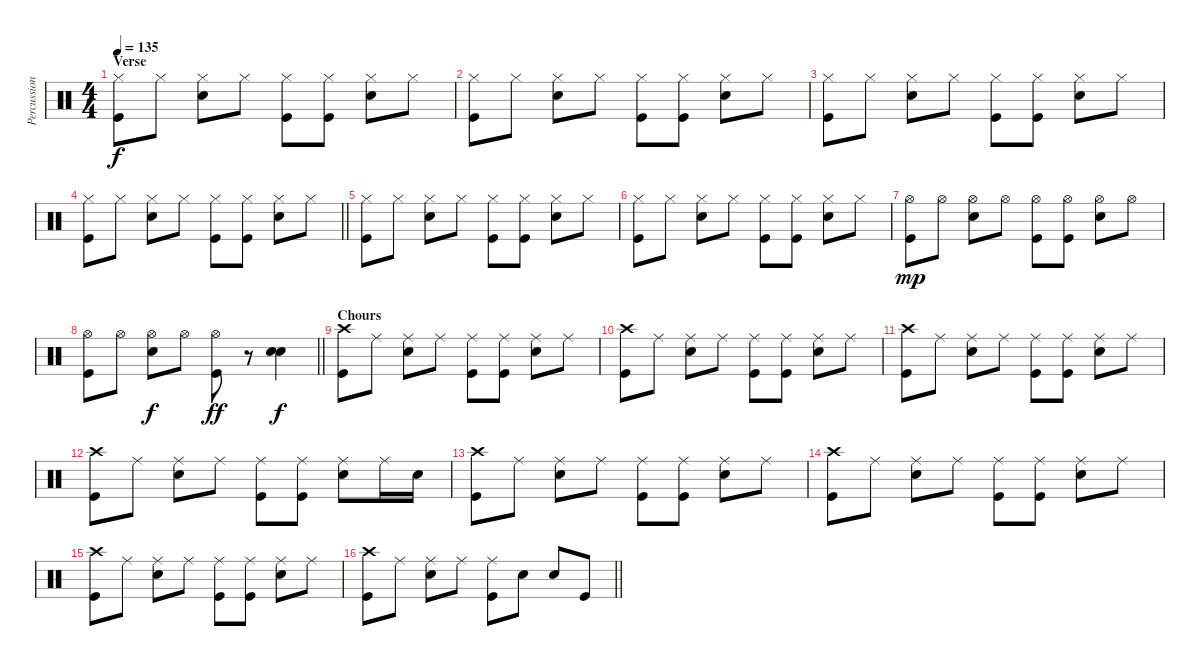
\track ("Percussion" "Percussion") {instrument percussion}
\staff {score}
\articulation defaults
\ts (4 4)
\section ("" "Verse ")
\tempo 135
\clef neutral
\ks c
("Hi-Hat (closed)" "Kick (hit)").8{dy f} "Hi-Hat (closed)".8 ("Hi-Hat (closed)" "Snare (hit) 2").8 "Hi-Hat (closed)".8 ("Hi-Hat (closed)" "Kick (hit)").8 ("Hi-Hat (closed)" "Kick (hit)").8 ("Hi-Hat (closed)" "Snare (hit) 2").8 "Hi-Hat (closed)".8 |
("Hi-Hat (closed)" "Kick (hit)").8 "Hi-Hat (closed)".8 ("Hi-Hat (closed)" "Snare (hit) 2").8 "Hi-Hat (closed)".8 ("Hi-Hat (closed)" "Kick (hit)").8 ("Hi-Hat (closed)" "Kick (hit)").8 ("Hi-Hat (closed)" "Snare (hit) 2").8 "Hi-Hat (closed)".8 |
("Hi-Hat (closed)" "Kick (hit)").8 "Hi-Hat (closed)".8 ("Hi-Hat (closed)" "Snare (hit) 2").8 "Hi-Hat (closed)".8 ("Hi-Hat (closed)" "Kick (hit)").8 ("Hi-Hat (closed)" "Kick (hit)").8 ("Hi-Hat (closed)" "Snare (hit) 2").8 "Hi-Hat (closed)".8 |
\barLineRight lightlight
("Hi-Hat (closed)" "Kick (hit)").8 "Hi-Hat (closed)".8 ("Hi-Hat (closed)" "Snare (hit) 2").8 "Hi-Hat (closed)".8 ("Hi-Hat (closed)" "Kick (hit)").8 ("Hi-Hat (closed)" "Kick (hit)").8 ("Hi-Hat (closed)" "Snare (hit) 2").8 "Hi-Hat (closed)".8 |
("Hi-Hat (closed)" "Kick (hit)").8 "Hi-Hat (closed)".8 ("Hi-Hat (closed)" "Snare (hit) 2").8 "Hi-Hat (closed)".8 ("Hi-Hat (closed)" "Kick (hit)").8 ("Hi-Hat (closed)" "Kick (hit)").8 ("Hi-Hat (closed)" "Snare (hit) 2").8 "Hi-Hat (closed)".8 |
("Hi-Hat (closed)" "Kick (hit)").8 "Hi-Hat (closed)".8 ("Hi-Hat (closed)" "Snare (hit) 2").8 "Hi-Hat (closed)".8 ("Hi-Hat (closed)" "Kick (hit)").8 ("Hi-Hat (closed)" "Kick (hit)").8 ("Hi-Hat (closed)" "Snare (hit) 2").8 "Hi-Hat (closed)".8 |
("Hi-Hat (open)" "Kick (hit)").8{dy mp} "Hi-Hat (open)".8 ("Hi-Hat (open)" "Snare (hit) 2").8 "Hi-Hat (open)".8 ("Hi-Hat (open)" "Kick (hit)").8 ("Hi-Hat (open)" "Kick (hit)").8 ("Hi-Hat (open)" "Snare (hit) 2").8 "Hi-Hat (open)".8 |
\barLineRight lightlight
("Hi-Hat (open)" "Kick (hit)").8 "Hi-Hat (open)".8 ("Hi-Hat (open)" "Snare (hit) 2").8{dy f} "Hi-Hat (open)".8 ("Hi-Hat (open)" "Kick (hit)").8{dy ff} r.8 ("Snare (hit) 2" "Snare (hit) 2").4{dy f} |
\section ("" "Chours ")
("Kick (hit)" "Crash high (hit)").8 "Ride (middle)".8 ("Ride (middle)" "Snare (hit) 2").8 "Ride (middle)".8 ("Ride (middle)" "Kick (hit)").8 ("Ride (middle)" "Kick (hit)").8 ("Ride (middle)" "Snare (hit) 2").8 "Ride (middle)".8 |
("Kick (hit)" "Crash high (hit)").8 "Ride (middle)".8 ("Ride (middle)" "Snare (hit) 2").8 "Ride (middle)".8 ("Ride (middle)" "Kick (hit)").8 ("Ride (middle)" "Kick (hit)").8 ("Ride (middle)" "Snare (hit) 2").8 "Ride (middle)".8 |
("Kick (hit)" "Crash high (hit)").8 "Ride (middle)".8 ("Ride (middle)" "Snare (hit) 2").8 "Ride (middle)".8 ("Ride (middle)" "Kick (hit)").8 ("Ride (middle)" "Kick (hit)").8 ("Ride (middle)" "Snare (hit) 2").8 "Ride (middle)".8 |
("Kick (hit)" "Crash high (hit)").8 "Ride (middle)".8 ("Ride (middle)" "Snare (hit) 2").8 "Ride (middle)".8 ("Ride (middle)" "Kick (hit)").8 ("Ride (middle)" "Kick (hit)").8 ("Ride (middle)" "Snare (hit) 2").8 "Ride (middle)".16 "Snare (hit) 2".16 |
("Kick (hit)" "Crash high (hit)").8 "Ride (middle)".8 ("Ride (middle)" "Snare (hit) 2").8 "Ride (middle)".8 ("Ride (middle)" "Kick (hit)").8 ("Ride (middle)" "Kick (hit)").8 ("Ride (middle)" "Snare (hit) 2").8 "Ride (middle)".8 |
("Kick (hit)" "Crash high (hit)").8 "Ride (middle)".8 ("Ride (middle)" "Snare (hit) 2").8 "Ride (middle)".8 ("Ride (middle)" "Kick (hit)").8 ("Ride (middle)" "Kick (hit)").8 ("Ride (middle)" "Snare (hit) 2").8 "Ride (middle)".8 |
("Kick (hit)" "Crash high (hit)").8 "Ride (middle)".8 ("Ride (middle)" "Snare (hit) 2").8 "Ride (middle)".8 ("Ride (middle)" "Kick (hit)").8 ("Ride (middle)" "Kick (hit)").8 ("Ride (middle)" "Snare (hit) 2").8 "Ride (middle)".8 |
\barLineRight lightlight
("Crash high (hit)" "Kick (hit)").8 "Ride (middle)".8 ("Ride (middle)" "Snare (hit) 2").8 "Ride (middle)".8 ("Ride (middle)" "Kick (hit)").8 "Snare (hit) 2".8 "Snare (hit) 2".8 "Kick (hit)".8
